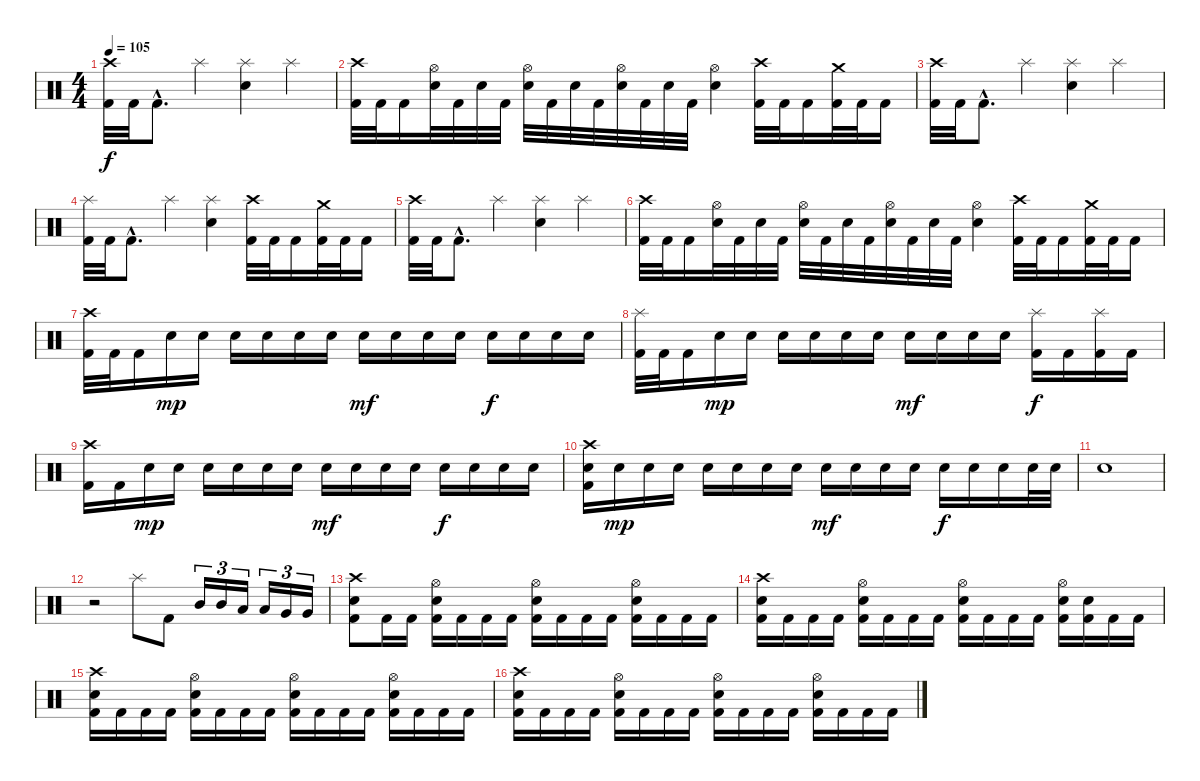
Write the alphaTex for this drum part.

\track "" {instrument percussion}
\staff {score}
\articulation defaults
\ts (4 4)
\tempo 105
\clef neutral
\ks c
("Crash high (hit)" "Kick (hit) 2").32{dy f} "Kick (hit) 2".32 "Kick (hit) 2"{hac}.8{d} "Splash (hit)".4 ("Splash (hit)" "Electric Snare (hit)").4 "Splash (hit)".4 |
("Crash high (hit)" "Kick (hit) 2").32 "Kick (hit) 2".32 "Kick (hit) 2".16 ("Hi-Hat (open)" "Electric Snare (hit)").32 "Kick (hit) 2".32 "Electric Snare (hit)".32 "Kick (hit) 2".32 ("Hi-Hat (open)" "Electric Snare (hit)").32 "Kick (hit) 2".32 "Electric Snare (hit)".32 "Kick (hit) 2".32 ("Hi-Hat (open)" "Electric Snare (hit)").32 "Kick (hit) 2".32 "Electric Snare (hit)".32 "Kick (hit) 2".32 ("Hi-Hat (open)" "Electric Snare (hit)").4 ("Crash high (hit)" "Kick (hit) 2").32 "Kick (hit) 2".32 "Kick (hit) 2".16 ("Crash medium (hit)" "Kick (hit) 2").32 "Kick (hit) 2".32 "Kick (hit) 2".16 |
("Crash high (hit)" "Kick (hit) 2").32 "Kick (hit) 2".32 "Kick (hit) 2"{hac}.8{d} "Splash (hit)".4 ("Splash (hit)" "Electric Snare (hit)").4 "Splash (hit)".4 |
("Splash (hit)" "Kick (hit) 2").32 "Kick (hit) 2".32 "Kick (hit) 2"{hac}.8{d} "Splash (hit)".4 ("Splash (hit)" "Electric Snare (hit)").4 ("Crash high (hit)" "Kick (hit) 2").32 "Kick (hit) 2".32 "Kick (hit) 2".16 ("Crash medium (hit)" "Kick (hit) 2").32 "Kick (hit) 2".32 "Kick (hit) 2".16 |
("Crash high (hit)" "Kick (hit) 2").32 "Kick (hit) 2".32 "Kick (hit) 2"{hac}.8{d} "Splash (hit)".4 ("Splash (hit)" "Electric Snare (hit)").4 "Splash (hit)".4 |
("Crash high (hit)" "Kick (hit) 2").32 "Kick (hit) 2".32 "Kick (hit) 2".16 ("Hi-Hat (open)" "Electric Snare (hit)").32 "Kick (hit) 2".32 "Electric Snare (hit)".32 "Kick (hit) 2".32 ("Hi-Hat (open)" "Electric Snare (hit)").32 "Kick (hit) 2".32 "Electric Snare (hit)".32 "Kick (hit) 2".32 ("Hi-Hat (open)" "Electric Snare (hit)").32 "Kick (hit) 2".32 "Electric Snare (hit)".32 "Kick (hit) 2".32 ("Hi-Hat (open)" "Electric Snare (hit)").4 ("Crash high (hit)" "Kick (hit) 2").32 "Kick (hit) 2".32 "Kick (hit) 2".16 ("Crash medium (hit)" "Kick (hit) 2").32 "Kick (hit) 2".32 "Kick (hit) 2".16 |
("Crash high (hit)" "Kick (hit) 2").32 "Kick (hit) 2".32 "Kick (hit) 2".16 "Electric Snare (hit)".16{dy mp} "Electric Snare (hit)".16 "Electric Snare (hit)".16 "Electric Snare (hit)".16 "Electric Snare (hit)".16 "Electric Snare (hit)".16 "Electric Snare (hit)".16{dy mf} "Electric Snare (hit)".16 "Electric Snare (hit)".16 "Electric Snare (hit)".16 "Electric Snare (hit)".16{dy f} "Electric Snare (hit)".16 "Electric Snare (hit)".16 "Electric Snare (hit)".16 |
("Splash (hit)" "Kick (hit) 2").32 "Kick (hit) 2".32 "Kick (hit) 2".16 "Electric Snare (hit)".16{dy mp} "Electric Snare (hit)".16 "Electric Snare (hit)".16 "Electric Snare (hit)".16 "Electric Snare (hit)".16 "Electric Snare (hit)".16 "Electric Snare (hit)".16{dy mf} "Electric Snare (hit)".16 "Electric Snare (hit)".16 "Electric Snare (hit)".16 ("Splash (hit)" "Kick (hit) 2").16{dy f} "Kick (hit) 2".16 ("Splash (hit)" "Kick (hit) 2").16 "Kick (hit) 2".16 |
("Crash high (hit)" "Kick (hit) 2").16 "Kick (hit) 2".16 "Electric Snare (hit)".16{dy mp} "Electric Snare (hit)".16 "Electric Snare (hit)".16 "Electric Snare (hit)".16 "Electric Snare (hit)".16 "Electric Snare (hit)".16 "Electric Snare (hit)".16{dy mf} "Electric Snare (hit)".16 "Electric Snare (hit)".16 "Electric Snare (hit)".16 "Electric Snare (hit)".16{dy f} "Electric Snare (hit)".16 "Electric Snare (hit)".16 "Electric Snare (hit)".16 |
("Crash high (hit)" "Electric Snare (hit)" "Kick (hit) 2").16 "Electric Snare (hit)".16{dy mp} "Electric Snare (hit)".16 "Electric Snare (hit)".16 "Electric Snare (hit)".16 "Electric Snare (hit)".16 "Electric Snare (hit)".16 "Electric Snare (hit)".16 "Electric Snare (hit)".16{dy mf} "Electric Snare (hit)".16 "Electric Snare (hit)".16 "Electric Snare (hit)".16 "Electric Snare (hit)".16{dy f} "Electric Snare (hit)".16 "Electric Snare (hit)".16 "Electric Snare (hit)".32 "Electric Snare (hit)".32 |
\section ("" "")
"Electric Snare (hit)".1 |
r.2 "Splash (hit)".8 "Kick (hit) 2".8 "Mid Tom (hit)".16{tu (3 2)} "Mid Tom (hit)".16{tu (3 2)} "Low Tom (hit)".16{tu (3 2)} "Low Tom (hit)".16{tu (3 2)} "Very Low Tom (hit)".16{tu (3 2)} "Very Low Tom (hit)".16{tu (3 2)} |
("Crash high (hit)" "Electric Snare (hit)" "Kick (hit) 2").8 "Kick (hit) 2".16 "Kick (hit) 2".16 ("Hi-Hat (open)" "Electric Snare (hit)" "Kick (hit) 2").16 "Kick (hit) 2".16 "Kick (hit) 2".16 "Kick (hit) 2".16 ("Hi-Hat (open)" "Electric Snare (hit)" "Kick (hit) 2").16 "Kick (hit) 2".16 "Kick (hit) 2".16 "Kick (hit) 2".16 ("Hi-Hat (open)" "Electric Snare (hit)" "Kick (hit) 2").16 "Kick (hit) 2".16 "Kick (hit) 2".16 "Kick (hit) 2".16 |
("Crash high (hit)" "Electric Snare (hit)" "Kick (hit) 2").16 "Kick (hit) 2".16 "Kick (hit) 2".16 "Kick (hit) 2".16 ("Hi-Hat (open)" "Electric Snare (hit)" "Kick (hit) 2").16 "Kick (hit) 2".16 "Kick (hit) 2".16 "Kick (hit) 2".16 ("Hi-Hat (open)" "Electric Snare (hit)" "Kick (hit) 2").16 "Kick (hit) 2".16 "Kick (hit) 2".16 "Kick (hit) 2".16 ("Hi-Hat (open)" "Electric Snare (hit)" "Kick (hit) 2").16 ("Electric Snare (hit)" "Kick (hit) 2").16 "Kick (hit) 2".16 "Kick (hit) 2".16 |
("Crash high (hit)" "Electric Snare (hit)" "Kick (hit) 2").16 "Kick (hit) 2".16 "Kick (hit) 2".16 "Kick (hit) 2".16 ("Hi-Hat (open)" "Electric Snare (hit)" "Kick (hit) 2").16 "Kick (hit) 2".16 "Kick (hit) 2".16 "Kick (hit) 2".16 ("Hi-Hat (open)" "Electric Snare (hit)" "Kick (hit) 2").16 "Kick (hit) 2".16 "Kick (hit) 2".16 "Kick (hit) 2".16 ("Hi-Hat (open)" "Electric Snare (hit)" "Kick (hit) 2").16 "Kick (hit) 2".16 "Kick (hit) 2".16 "Kick (hit) 2".16 |
("Crash high (hit)" "Electric Snare (hit)" "Kick (hit) 2").16 "Kick (hit) 2".16 "Kick (hit) 2".16 "Kick (hit) 2".16 ("Hi-Hat (open)" "Electric Snare (hit)" "Kick (hit) 2").16 "Kick (hit) 2".16 "Kick (hit) 2".16 "Kick (hit) 2".16 ("Hi-Hat (open)" "Electric Snare (hit)" "Kick (hit) 2").16 "Kick (hit) 2".16 "Kick (hit) 2".16 "Kick (hit) 2".16 ("Hi-Hat (open)" "Electric Snare (hit)" "Kick (hit) 2").16 "Kick (hit) 2".16 "Kick (hit) 2".16 "Kick (hit) 2".16
